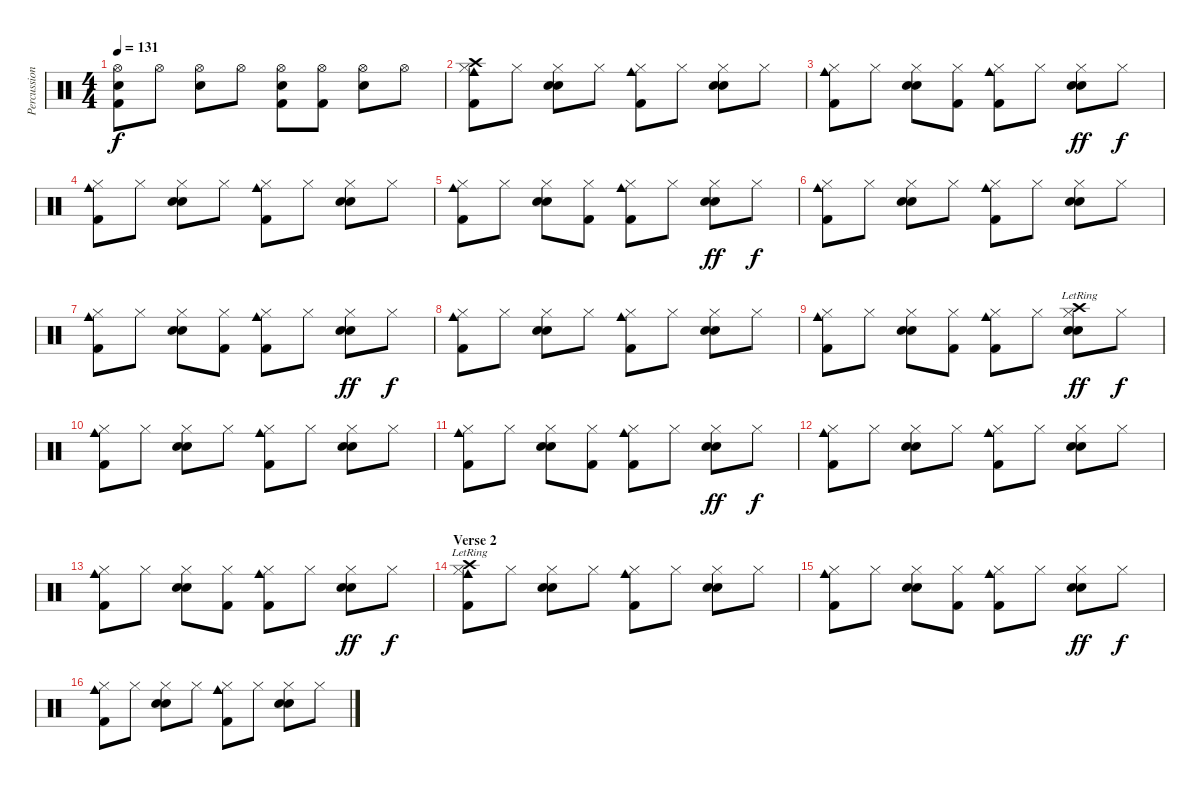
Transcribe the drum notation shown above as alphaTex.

\track ("Percussion" "Percussion") {instrument percussion}
\staff {score}
\articulation defaults
\ts (4 4)
\tempo 131
\clef neutral
\ks c
("Hi-Hat (open)" "Electric Snare (hit)" "Kick (hit) 2").8{dy f} "Hi-Hat (open)".8 ("Hi-Hat (open)" "Electric Snare (hit)").8 "Hi-Hat (open)".8 ("Hi-Hat (open)" "Electric Snare (hit)" "Kick (hit) 2").8 ("Hi-Hat (open)" "Kick (hit) 2").8 ("Hi-Hat (open)" "Electric Snare (hit)").8 "Hi-Hat (open)".8 |
("Crash high (hit)" "Hi-Hat (closed)" "Cowbell medium (hit)" "Kick (hit) 2").8 "Hi-Hat (closed)".8 ("Hand Clap (hit)" "Hi-Hat (closed)" "Electric Snare (hit)").8 "Hi-Hat (closed)".8 ("Hi-Hat (closed)" "Cowbell medium (hit)" "Kick (hit) 2").8 "Hi-Hat (closed)".8 ("Hand Clap (hit)" "Hi-Hat (closed)" "Electric Snare (hit)").8 "Hi-Hat (closed)".8 |
("Hi-Hat (closed)" "Cowbell medium (hit)" "Kick (hit) 2").8 "Hi-Hat (closed)".8 ("Hand Clap (hit)" "Hi-Hat (closed)" "Electric Snare (hit)").8 ("Hi-Hat (closed)" "Kick (hit) 2").8 ("Hi-Hat (closed)" "Cowbell medium (hit)" "Kick (hit) 2").8 "Hi-Hat (closed)".8 ("Hand Clap (hit)" "Hi-Hat (closed)" "Electric Snare (hit)").8{dy ff} "Hi-Hat (closed)".8{dy f} |
("Hi-Hat (closed)" "Cowbell medium (hit)" "Kick (hit) 2").8 "Hi-Hat (closed)".8 ("Hand Clap (hit)" "Hi-Hat (closed)" "Electric Snare (hit)").8 "Hi-Hat (closed)".8 ("Hi-Hat (closed)" "Cowbell medium (hit)" "Kick (hit) 2").8 "Hi-Hat (closed)".8 ("Hand Clap (hit)" "Hi-Hat (closed)" "Electric Snare (hit)").8 "Hi-Hat (closed)".8 |
("Hi-Hat (closed)" "Cowbell medium (hit)" "Kick (hit) 2").8 "Hi-Hat (closed)".8 ("Hand Clap (hit)" "Hi-Hat (closed)" "Electric Snare (hit)").8 ("Hi-Hat (closed)" "Kick (hit) 2").8 ("Hi-Hat (closed)" "Cowbell medium (hit)" "Kick (hit) 2").8 "Hi-Hat (closed)".8 ("Hand Clap (hit)" "Hi-Hat (closed)" "Electric Snare (hit)").8{dy ff} "Hi-Hat (closed)".8{dy f} |
("Hi-Hat (closed)" "Cowbell medium (hit)" "Kick (hit) 2").8 "Hi-Hat (closed)".8 ("Hand Clap (hit)" "Hi-Hat (closed)" "Electric Snare (hit)").8 "Hi-Hat (closed)".8 ("Hi-Hat (closed)" "Cowbell medium (hit)" "Kick (hit) 2").8 "Hi-Hat (closed)".8 ("Hand Clap (hit)" "Hi-Hat (closed)" "Electric Snare (hit)").8 "Hi-Hat (closed)".8 |
("Hi-Hat (closed)" "Cowbell medium (hit)" "Kick (hit) 2").8 "Hi-Hat (closed)".8 ("Hand Clap (hit)" "Hi-Hat (closed)" "Electric Snare (hit)").8 ("Hi-Hat (closed)" "Kick (hit) 2").8 ("Hi-Hat (closed)" "Cowbell medium (hit)" "Kick (hit) 2").8 "Hi-Hat (closed)".8 ("Hand Clap (hit)" "Hi-Hat (closed)" "Electric Snare (hit)").8{dy ff} "Hi-Hat (closed)".8{dy f} |
("Hi-Hat (closed)" "Cowbell medium (hit)" "Kick (hit) 2").8 "Hi-Hat (closed)".8 ("Hand Clap (hit)" "Hi-Hat (closed)" "Electric Snare (hit)").8 "Hi-Hat (closed)".8 ("Hi-Hat (closed)" "Cowbell medium (hit)" "Kick (hit) 2").8 "Hi-Hat (closed)".8 ("Hand Clap (hit)" "Hi-Hat (closed)" "Electric Snare (hit)").8 "Hi-Hat (closed)".8 |
("Hi-Hat (closed)" "Cowbell medium (hit)" "Kick (hit) 2").8 "Hi-Hat (closed)".8 ("Hand Clap (hit)" "Hi-Hat (closed)" "Electric Snare (hit)").8 ("Hi-Hat (closed)" "Kick (hit) 2").8 ("Hi-Hat (closed)" "Cowbell medium (hit)" "Kick (hit) 2").8 "Hi-Hat (closed)".8 ("Hand Clap (hit)" "Hi-Hat (closed)" "Electric Snare (hit)" "Crash high (hit)"{lr}).8{dy ff} "Hi-Hat (closed)".8{dy f} |
("Hi-Hat (closed)" "Cowbell medium (hit)" "Kick (hit) 2").8 "Hi-Hat (closed)".8 ("Hand Clap (hit)" "Hi-Hat (closed)" "Electric Snare (hit)").8 "Hi-Hat (closed)".8 ("Hi-Hat (closed)" "Cowbell medium (hit)" "Kick (hit) 2").8 "Hi-Hat (closed)".8 ("Hand Clap (hit)" "Hi-Hat (closed)" "Electric Snare (hit)").8 "Hi-Hat (closed)".8 |
("Hi-Hat (closed)" "Cowbell medium (hit)" "Kick (hit) 2").8 "Hi-Hat (closed)".8 ("Hand Clap (hit)" "Hi-Hat (closed)" "Electric Snare (hit)").8 ("Hi-Hat (closed)" "Kick (hit) 2").8 ("Hi-Hat (closed)" "Cowbell medium (hit)" "Kick (hit) 2").8 "Hi-Hat (closed)".8 ("Hand Clap (hit)" "Hi-Hat (closed)" "Electric Snare (hit)").8{dy ff} "Hi-Hat (closed)".8{dy f} |
("Hi-Hat (closed)" "Cowbell medium (hit)" "Kick (hit) 2").8 "Hi-Hat (closed)".8 ("Hand Clap (hit)" "Hi-Hat (closed)" "Electric Snare (hit)").8 "Hi-Hat (closed)".8 ("Hi-Hat (closed)" "Cowbell medium (hit)" "Kick (hit) 2").8 "Hi-Hat (closed)".8 ("Hand Clap (hit)" "Hi-Hat (closed)" "Electric Snare (hit)").8 "Hi-Hat (closed)".8 |
("Hi-Hat (closed)" "Cowbell medium (hit)" "Kick (hit) 2").8 "Hi-Hat (closed)".8 ("Hand Clap (hit)" "Hi-Hat (closed)" "Electric Snare (hit)").8 ("Hi-Hat (closed)" "Kick (hit) 2").8 ("Hi-Hat (closed)" "Cowbell medium (hit)" "Kick (hit) 2").8 "Hi-Hat (closed)".8 ("Hand Clap (hit)" "Hi-Hat (closed)" "Electric Snare (hit)").8{dy ff} "Hi-Hat (closed)".8{dy f} |
\section ("" "Verse 2")
("Crash high (hit)"{lr} "Hi-Hat (closed)" "Cowbell medium (hit)" "Kick (hit) 2").8 "Hi-Hat (closed)".8 ("Hand Clap (hit)" "Hi-Hat (closed)" "Electric Snare (hit)").8 "Hi-Hat (closed)".8 ("Hi-Hat (closed)" "Cowbell medium (hit)" "Kick (hit) 2").8 "Hi-Hat (closed)".8 ("Hand Clap (hit)" "Hi-Hat (closed)" "Electric Snare (hit)").8 "Hi-Hat (closed)".8 |
("Hi-Hat (closed)" "Cowbell medium (hit)" "Kick (hit) 2").8 "Hi-Hat (closed)".8 ("Hand Clap (hit)" "Hi-Hat (closed)" "Electric Snare (hit)").8 ("Hi-Hat (closed)" "Kick (hit) 2").8 ("Hi-Hat (closed)" "Cowbell medium (hit)" "Kick (hit) 2").8 "Hi-Hat (closed)".8 ("Hand Clap (hit)" "Hi-Hat (closed)" "Electric Snare (hit)").8{dy ff} "Hi-Hat (closed)".8{dy f} |
("Hi-Hat (closed)" "Cowbell medium (hit)" "Kick (hit) 2").8 "Hi-Hat (closed)".8 ("Hand Clap (hit)" "Hi-Hat (closed)" "Electric Snare (hit)").8 "Hi-Hat (closed)".8 ("Hi-Hat (closed)" "Cowbell medium (hit)" "Kick (hit) 2").8 "Hi-Hat (closed)".8 ("Hand Clap (hit)" "Hi-Hat (closed)" "Electric Snare (hit)").8 "Hi-Hat (closed)".8
